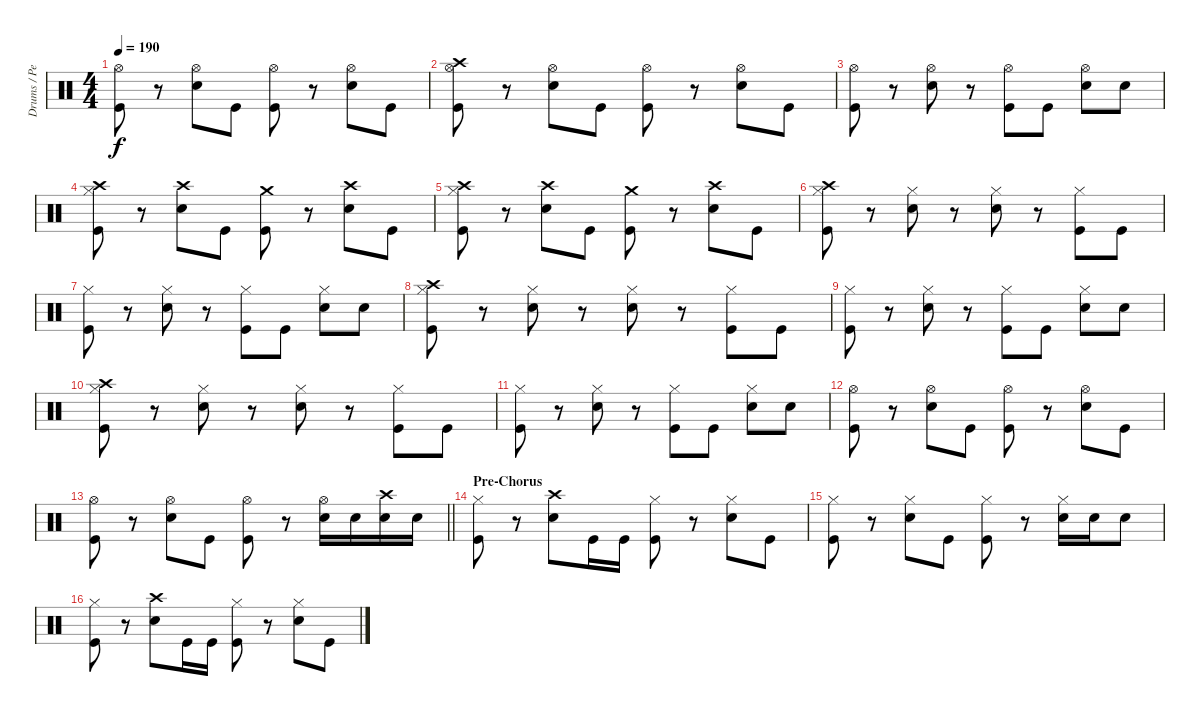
\track ("Drums / Percussion" "Drums / Pe") {instrument percussion}
\staff {score}
\articulation defaults
\ts (4 4)
\tempo 190
\clef neutral
\ks c
("Hi-Hat (open)" "Kick (hit)").8{dy f} r.8 ("Hi-Hat (open)" "Electric Snare (hit)").8 "Kick (hit)".8 ("Hi-Hat (open)" "Kick (hit)").8 r.8 ("Hi-Hat (open)" "Electric Snare (hit)").8 "Kick (hit)".8 |
("Hi-Hat (open)" "Crash high (hit)" "Kick (hit)").8 r.8 ("Hi-Hat (open)" "Electric Snare (hit)").8 "Kick (hit)".8 ("Hi-Hat (open)" "Kick (hit)").8 r.8 ("Hi-Hat (open)" "Electric Snare (hit)").8 "Kick (hit)".8 |
("Hi-Hat (open)" "Kick (hit)").8 r.8 ("Hi-Hat (open)" "Electric Snare (hit)").8 r.8 ("Hi-Hat (open)" "Kick (hit)").8 "Kick (hit)".8 ("Hi-Hat (open)" "Electric Snare (hit)").8 "Electric Snare (hit)".8 |
("Hi-Hat (closed)" "Crash high (hit)" "Kick (hit)").8 r.8 ("Crash high (hit)" "Electric Snare (hit)").8 "Kick (hit)".8 ("Crash medium (hit)" "Kick (hit)").8 r.8 ("Crash high (hit)" "Electric Snare (hit)").8 "Kick (hit)".8 |
("Hi-Hat (closed)" "Crash high (hit)" "Kick (hit)").8 r.8 ("Crash high (hit)" "Electric Snare (hit)").8 "Kick (hit)".8 ("Crash medium (hit)" "Kick (hit)").8 r.8 ("Crash high (hit)" "Electric Snare (hit)").8 "Kick (hit)".8 |
("Hi-Hat (closed)" "Crash high (hit)" "Kick (hit)").8 r.8 ("Hi-Hat (closed)" "Electric Snare (hit)").8 r.8 ("Hi-Hat (closed)" "Electric Snare (hit)").8 r.8 ("Hi-Hat (closed)" "Kick (hit)").8 "Kick (hit)".8 |
("Hi-Hat (closed)" "Kick (hit)").8 r.8 ("Hi-Hat (closed)" "Electric Snare (hit)").8 r.8 ("Hi-Hat (closed)" "Kick (hit)").8 "Kick (hit)".8 ("Hi-Hat (closed)" "Electric Snare (hit)").8 "Electric Snare (hit)".8 |
("Hi-Hat (closed)" "Crash high (hit)" "Kick (hit)").8 r.8 ("Hi-Hat (closed)" "Electric Snare (hit)").8 r.8 ("Hi-Hat (closed)" "Electric Snare (hit)").8 r.8 ("Hi-Hat (closed)" "Kick (hit)").8 "Kick (hit)".8 |
("Hi-Hat (closed)" "Kick (hit)").8 r.8 ("Hi-Hat (closed)" "Electric Snare (hit)").8 r.8 ("Hi-Hat (closed)" "Kick (hit)").8 "Kick (hit)".8 ("Hi-Hat (closed)" "Electric Snare (hit)").8 "Electric Snare (hit)".8 |
("Hi-Hat (closed)" "Crash high (hit)" "Kick (hit)").8 r.8 ("Hi-Hat (closed)" "Electric Snare (hit)").8 r.8 ("Hi-Hat (closed)" "Electric Snare (hit)").8 r.8 ("Hi-Hat (closed)" "Kick (hit)").8 "Kick (hit)".8 |
("Hi-Hat (closed)" "Kick (hit)").8 r.8 ("Hi-Hat (closed)" "Electric Snare (hit)").8 r.8 ("Hi-Hat (closed)" "Kick (hit)").8 "Kick (hit)".8 ("Hi-Hat (closed)" "Electric Snare (hit)").8 "Electric Snare (hit)".8 |
("Hi-Hat (open)" "Kick (hit)").8 r.8 ("Hi-Hat (open)" "Electric Snare (hit)").8 "Kick (hit)".8 ("Hi-Hat (open)" "Kick (hit)").8 r.8 ("Hi-Hat (open)" "Electric Snare (hit)").8 "Kick (hit)".8 |
\barLineRight lightlight
("Hi-Hat (open)" "Kick (hit)").8 r.8 ("Hi-Hat (open)" "Electric Snare (hit)").8 "Kick (hit)".8 ("Hi-Hat (open)" "Kick (hit)").8 r.8 ("Hi-Hat (open)" "Electric Snare (hit)").16 "Electric Snare (hit)".16 ("Crash high (hit)" "Electric Snare (hit)").16 "Electric Snare (hit)".16 |
\section ("" "Pre-Chorus")
("Hi-Hat (closed)" "Kick (hit)").8 r.8 ("Crash high (hit)" "Electric Snare (hit)").8 "Kick (hit)".16 "Kick (hit)".16 ("Hi-Hat (closed)" "Kick (hit)").8 r.8 ("Hi-Hat (closed)" "Electric Snare (hit)").8 "Kick (hit)".8 |
("Hi-Hat (closed)" "Kick (hit)").8 r.8 ("Hi-Hat (closed)" "Electric Snare (hit)").8 "Kick (hit)".8 ("Hi-Hat (closed)" "Kick (hit)").8 r.8 ("Hi-Hat (closed)" "Electric Snare (hit)").16 "Electric Snare (hit)".16 "Electric Snare (hit)".8 |
("Hi-Hat (closed)" "Kick (hit)").8 r.8 ("Crash high (hit)" "Electric Snare (hit)").8 "Kick (hit)".16 "Kick (hit)".16 ("Hi-Hat (closed)" "Kick (hit)").8 r.8 ("Hi-Hat (closed)" "Electric Snare (hit)").8 "Kick (hit)".8
